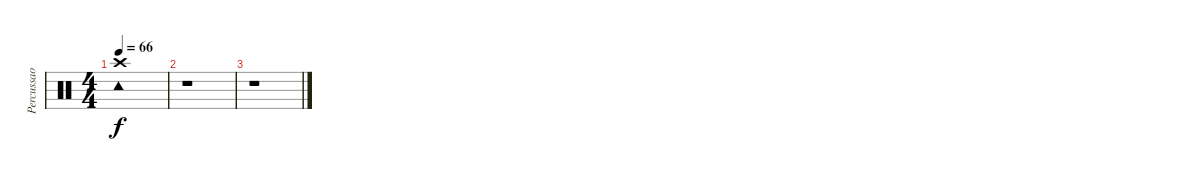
\track ("Percussao" "Percussao") {instrument percussion}
\staff {score}
\articulation defaults
\ts (4 4)
\tempo 66
\clef neutral
\ks c
("Crash high (hit)" "Tambourine (hit)").1{dy f} |
r.1 |
r.1
